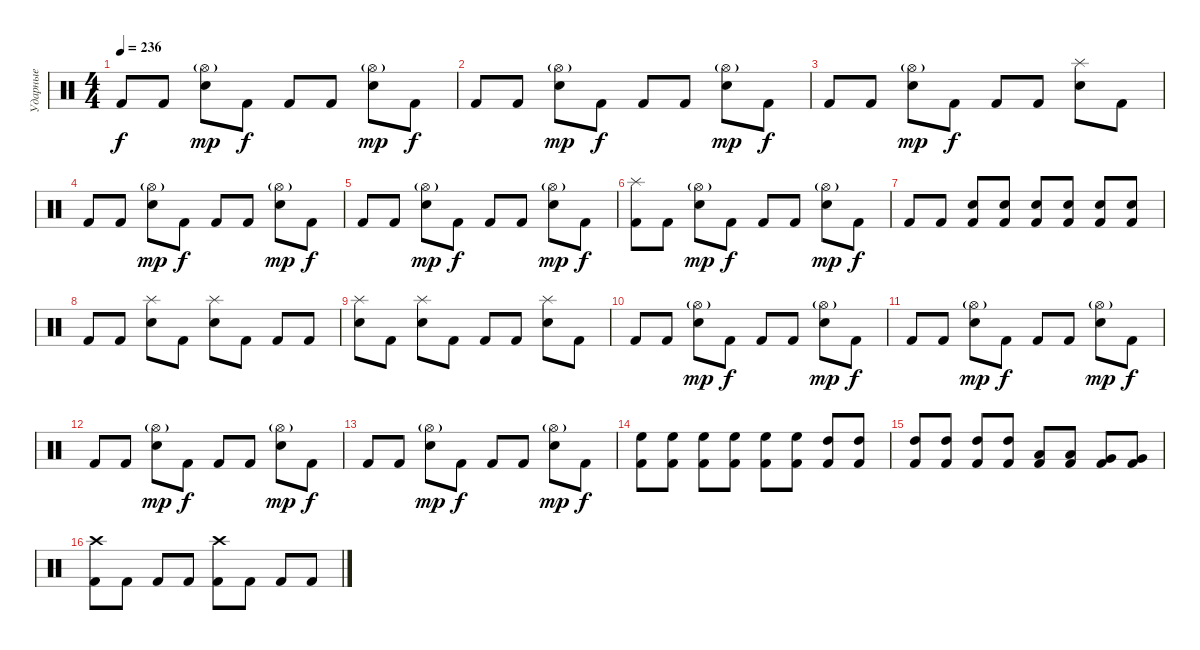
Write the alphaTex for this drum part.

\track ("Ударные" "Ударные") {instrument percussion}
\staff {score}
\articulation defaults
\ts (4 4)
\tempo 236
\clef neutral
\ks c "Kick (hit) 2".8{dy f} "Kick (hit) 2".8
("Hi-Hat (open)"{g} "Electric Snare (hit)").8{dy mp} "Kick (hit) 2".8{dy f} "Kick (hit) 2".8 "Kick (hit) 2".8 ("Hi-Hat (open)"{g} "Electric Snare (hit)").8{dy mp} "Kick (hit) 2".8{dy f} |
"Kick (hit) 2".8 "Kick (hit) 2".8 ("Hi-Hat (open)"{g} "Electric Snare (hit)").8{dy mp} "Kick (hit) 2".8{dy f} "Kick (hit) 2".8 "Kick (hit) 2".8 ("Hi-Hat (open)"{g} "Electric Snare (hit)").8{dy mp} "Kick (hit) 2".8{dy f} |
"Kick (hit) 2".8 "Kick (hit) 2".8 ("Hi-Hat (open)"{g} "Electric Snare (hit)").8{dy mp} "Kick (hit) 2".8{dy f} "Kick (hit) 2".8 "Kick (hit) 2".8 ("Splash (hit)" "Electric Snare (hit)").8 "Kick (hit) 2".8 |
"Kick (hit) 2".8 "Kick (hit) 2".8 ("Hi-Hat (open)"{g} "Electric Snare (hit)").8{dy mp} "Kick (hit) 2".8{dy f} "Kick (hit) 2".8 "Kick (hit) 2".8 ("Hi-Hat (open)"{g} "Electric Snare (hit)").8{dy mp} "Kick (hit) 2".8{dy f} |
"Kick (hit) 2".8 "Kick (hit) 2".8 ("Hi-Hat (open)"{g} "Electric Snare (hit)").8{dy mp} "Kick (hit) 2".8{dy f} "Kick (hit) 2".8 "Kick (hit) 2".8 ("Hi-Hat (open)"{g} "Electric Snare (hit)").8{dy mp} "Kick (hit) 2".8{dy f} |
("Splash (hit)" "Kick (hit) 2").8 "Kick (hit) 2".8 ("Hi-Hat (open)"{g} "Electric Snare (hit)").8{dy mp} "Kick (hit) 2".8{dy f} "Kick (hit) 2".8 "Kick (hit) 2".8 ("Hi-Hat (open)"{g} "Electric Snare (hit)").8{dy mp} "Kick (hit) 2".8{dy f} |
"Kick (hit) 2".8 "Kick (hit) 2".8 ("Electric Snare (hit)" "Kick (hit) 2").8 ("Electric Snare (hit)" "Kick (hit) 2").8 ("Electric Snare (hit)" "Kick (hit) 2").8 ("Electric Snare (hit)" "Kick (hit) 2").8 ("Electric Snare (hit)" "Kick (hit) 2").8 ("Electric Snare (hit)" "Kick (hit) 2").8 |
"Kick (hit) 2".8 "Kick (hit) 2".8 ("Splash (hit)" "Electric Snare (hit)").8 "Kick (hit) 2".8 ("Splash (hit)" "Electric Snare (hit)").8 "Kick (hit) 2".8 "Kick (hit) 2".8 "Kick (hit) 2".8 |
("Splash (hit)" "Electric Snare (hit)").8 "Kick (hit) 2".8 ("Splash (hit)" "Electric Snare (hit)").8 "Kick (hit) 2".8 "Kick (hit) 2".8 "Kick (hit) 2".8 ("Splash (hit)" "Electric Snare (hit)").8 "Kick (hit) 2".8 |
"Kick (hit) 2".8 "Kick (hit) 2".8 ("Hi-Hat (open)"{g} "Electric Snare (hit)").8{dy mp} "Kick (hit) 2".8{dy f} "Kick (hit) 2".8 "Kick (hit) 2".8 ("Hi-Hat (open)"{g} "Electric Snare (hit)").8{dy mp} "Kick (hit) 2".8{dy f} |
"Kick (hit) 2".8 "Kick (hit) 2".8 ("Hi-Hat (open)"{g} "Electric Snare (hit)").8{dy mp} "Kick (hit) 2".8{dy f} "Kick (hit) 2".8 "Kick (hit) 2".8 ("Hi-Hat (open)"{g} "Electric Snare (hit)").8{dy mp} "Kick (hit) 2".8{dy f} |
"Kick (hit) 2".8 "Kick (hit) 2".8 ("Hi-Hat (open)"{g} "Electric Snare (hit)").8{dy mp} "Kick (hit) 2".8{dy f} "Kick (hit) 2".8 "Kick (hit) 2".8 ("Hi-Hat (open)"{g} "Electric Snare (hit)").8{dy mp} "Kick (hit) 2".8{dy f} |
"Kick (hit) 2".8 "Kick (hit) 2".8 ("Hi-Hat (open)"{g} "Electric Snare (hit)").8{dy mp} "Kick (hit) 2".8{dy f} "Kick (hit) 2".8 "Kick (hit) 2".8 ("Hi-Hat (open)"{g} "Electric Snare (hit)").8{dy mp} "Kick (hit) 2".8{dy f} |
("High Floor Tom (hit)" "Kick (hit) 2").8 ("High Floor Tom (hit)" "Kick (hit) 2").8 ("High Floor Tom (hit)" "Kick (hit) 2").8 ("High Floor Tom (hit)" "Kick (hit) 2").8 ("High Floor Tom (hit)" "Kick (hit) 2").8 ("High Floor Tom (hit)" "Kick (hit) 2").8 ("High Tom (hit)" "Kick (hit) 2").8 ("High Tom (hit)" "Kick (hit) 2").8 |
("High Tom (hit)" "Kick (hit) 2").8 ("High Tom (hit)" "Kick (hit) 2").8 ("High Tom (hit)" "Kick (hit) 2").8 ("High Tom (hit)" "Kick (hit) 2").8 ("Low Tom (hit)" "Kick (hit) 2").8 ("Low Tom (hit)" "Kick (hit) 2").8 ("Very Low Tom (hit)" "Kick (hit) 2").8 ("Very Low Tom (hit)" "Kick (hit) 2").8 |
("Crash high (hit)" "Kick (hit) 2").8 "Kick (hit) 2".8 "Kick (hit) 2".8 "Kick (hit) 2".8 ("Crash high (hit)" "Kick (hit) 2").8 "Kick (hit) 2".8 "Kick (hit) 2".8 "Kick (hit) 2".8
